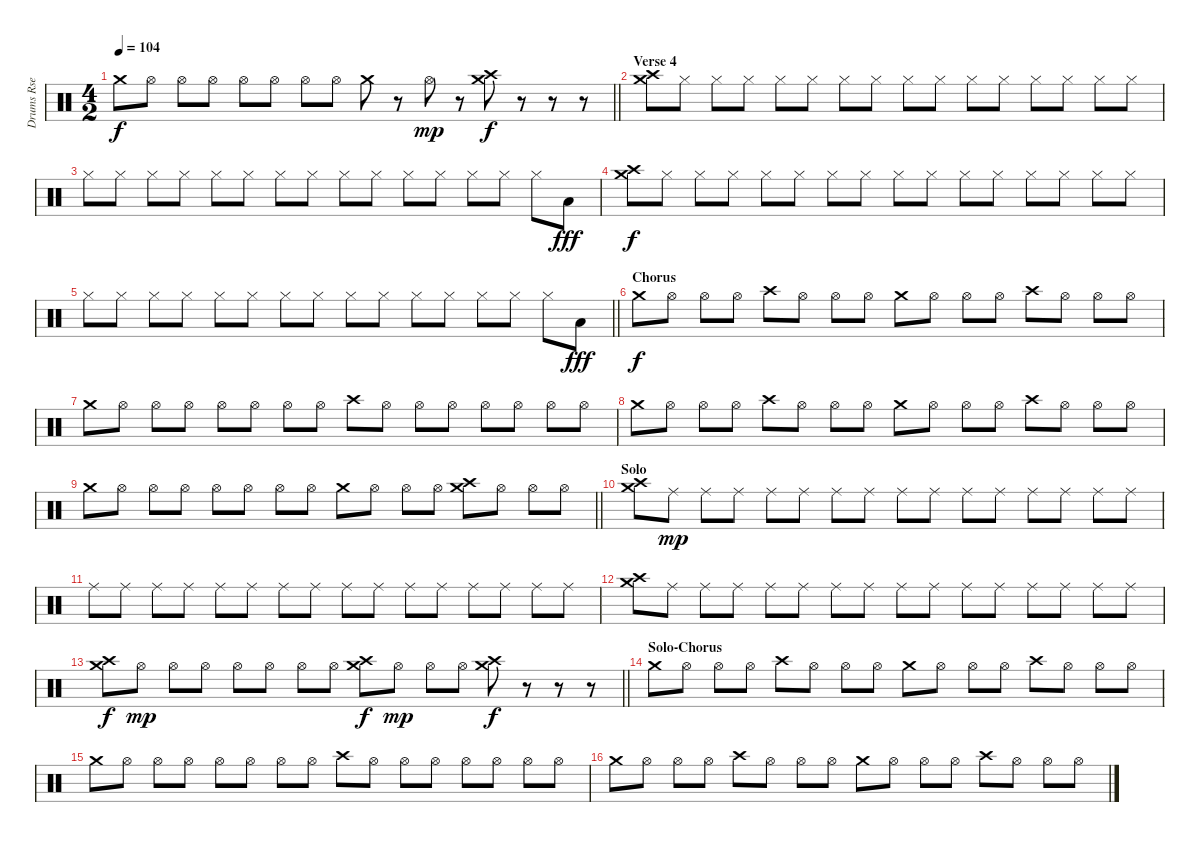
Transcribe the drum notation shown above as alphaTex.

\track ("Drums Rse" "Drums Rse") {instrument percussion}
\staff {score}
\articulation defaults
\ts (4 2)
\tempo 104
\clef neutral
\barLineRight lightlight
\ks c "Crash medium (hit)".8{dy f} "Hi-Hat (open)".8 "Hi-Hat (open)".8 "Hi-Hat (open)".8 "Hi-Hat (open)".8 "Hi-Hat (open)".8 "Hi-Hat (open)".8 "Hi-Hat (open)".8 "Crash medium (hit)".8
r.8 "Hi-Hat (open)".8{dy mp} r.8 ("Crash medium (hit)" "Crash high (hit)").8{dy f} r.8 r.8 r.8 |
\section ("" "Verse 4")
("Crash medium (hit)" "Crash high (hit)").8 "Hi-Hat (closed)".8 "Hi-Hat (closed)".8 "Hi-Hat (closed)".8 "Hi-Hat (closed)".8 "Hi-Hat (closed)".8 "Hi-Hat (closed)".8 "Hi-Hat (closed)".8 "Hi-Hat (closed)".8 "Hi-Hat (closed)".8 "Hi-Hat (closed)".8 "Hi-Hat (closed)".8 "Hi-Hat (closed)".8 "Hi-Hat (closed)".8 "Hi-Hat (closed)".8 "Hi-Hat (closed)".8 |
"Hi-Hat (closed)".8 "Hi-Hat (closed)".8 "Hi-Hat (closed)".8 "Hi-Hat (closed)".8 "Hi-Hat (closed)".8 "Hi-Hat (closed)".8 "Hi-Hat (closed)".8 "Hi-Hat (closed)".8 "Hi-Hat (closed)".8 "Hi-Hat (closed)".8 "Hi-Hat (closed)".8 "Hi-Hat (closed)".8 "Hi-Hat (closed)".8 "Hi-Hat (closed)".8 "Hi-Hat (closed)".8 "Low Tom (hit)".8{dy fff} |
("Crash medium (hit)" "Crash high (hit)").8{dy f} "Hi-Hat (closed)".8 "Hi-Hat (closed)".8 "Hi-Hat (closed)".8 "Hi-Hat (closed)".8 "Hi-Hat (closed)".8 "Hi-Hat (closed)".8 "Hi-Hat (closed)".8 "Hi-Hat (closed)".8 "Hi-Hat (closed)".8 "Hi-Hat (closed)".8 "Hi-Hat (closed)".8 "Hi-Hat (closed)".8 "Hi-Hat (closed)".8 "Hi-Hat (closed)".8 "Hi-Hat (closed)".8 |
\barLineRight lightlight "Hi-Hat (closed)".8 "Hi-Hat (closed)".8 "Hi-Hat (closed)".8 "Hi-Hat (closed)".8 "Hi-Hat (closed)".8 "Hi-Hat (closed)".8 "Hi-Hat (closed)".8 "Hi-Hat (closed)".8 "Hi-Hat (closed)".8 "Hi-Hat (closed)".8 "Hi-Hat (closed)".8 "Hi-Hat (closed)".8 "Hi-Hat (closed)".8 "Hi-Hat (closed)".8 "Hi-Hat (closed)".8 "Low Tom (hit)".8{dy fff}
|
\section ("" "Chorus")
"Crash medium (hit)".8{dy f} "Hi-Hat (open)".8 "Hi-Hat (open)".8 "Hi-Hat (open)".8 "Crash high (hit)".8 "Hi-Hat (open)".8 "Hi-Hat (open)".8 "Hi-Hat (open)".8 "Crash medium (hit)".8 "Hi-Hat (open)".8 "Hi-Hat (open)".8 "Hi-Hat (open)".8 "Crash high (hit)".8 "Hi-Hat (open)".8 "Hi-Hat (open)".8 "Hi-Hat (open)".8 |
"Crash medium (hit)".8 "Hi-Hat (open)".8 "Hi-Hat (open)".8 "Hi-Hat (open)".8 "Hi-Hat (open)".8 "Hi-Hat (open)".8 "Hi-Hat (open)".8 "Hi-Hat (open)".8 "Crash high (hit)".8 "Hi-Hat (open)".8 "Hi-Hat (open)".8 "Hi-Hat (open)".8 "Hi-Hat (open)".8 "Hi-Hat (open)".8 "Hi-Hat (open)".8 "Hi-Hat (open)".8 |
"Crash medium (hit)".8 "Hi-Hat (open)".8 "Hi-Hat (open)".8 "Hi-Hat (open)".8 "Crash high (hit)".8 "Hi-Hat (open)".8 "Hi-Hat (open)".8 "Hi-Hat (open)".8 "Crash medium (hit)".8 "Hi-Hat (open)".8 "Hi-Hat (open)".8 "Hi-Hat (open)".8 "Crash high (hit)".8 "Hi-Hat (open)".8 "Hi-Hat (open)".8 "Hi-Hat (open)".8 |
\barLineRight lightlight "Crash medium (hit)".8 "Hi-Hat (open)".8 "Hi-Hat (open)".8 "Hi-Hat (open)".8 "Hi-Hat (open)".8 "Hi-Hat (open)".8 "Hi-Hat (open)".8 "Hi-Hat (open)".8 "Crash medium (hit)".8 "Hi-Hat (open)".8 "Hi-Hat (open)".8 "Hi-Hat (open)".8
("Crash medium (hit)" "Crash high (hit)").8 "Hi-Hat (open)".8 "Hi-Hat (open)".8 "Hi-Hat (open)".8 |
\section ("" "Solo")
("Crash medium (hit)" "Crash high (hit)").8 "Ride (middle)".8{dy mp} "Ride (middle)".8 "Ride (middle)".8 "Ride (middle)".8 "Ride (middle)".8 "Ride (middle)".8 "Ride (middle)".8 "Ride (middle)".8 "Ride (middle)".8 "Ride (middle)".8 "Ride (middle)".8 "Ride (middle)".8 "Ride (middle)".8 "Ride (middle)".8 "Ride (middle)".8 |
"Ride (middle)".8 "Ride (middle)".8 "Ride (middle)".8 "Ride (middle)".8 "Ride (middle)".8 "Ride (middle)".8 "Ride (middle)".8 "Ride (middle)".8 "Ride (middle)".8 "Ride (middle)".8 "Ride (middle)".8 "Ride (middle)".8 "Ride (middle)".8 "Ride (middle)".8 "Ride (middle)".8 "Ride (middle)".8 |
("Crash medium (hit)" "Crash high (hit)").8 "Ride (middle)".8 "Ride (middle)".8 "Ride (middle)".8 "Ride (middle)".8 "Ride (middle)".8 "Ride (middle)".8 "Ride (middle)".8 "Ride (middle)".8 "Ride (middle)".8 "Ride (middle)".8 "Ride (middle)".8 "Ride (middle)".8 "Ride (middle)".8 "Ride (middle)".8 "Ride (middle)".8 |
\barLineRight lightlight
("Crash medium (hit)" "Crash high (hit)").8{dy f} "Hi-Hat (open)".8{dy mp} "Hi-Hat (open)".8 "Hi-Hat (open)".8 "Hi-Hat (open)".8 "Hi-Hat (open)".8 "Hi-Hat (open)".8 "Hi-Hat (open)".8 ("Crash medium (hit)" "Crash high (hit)").8{dy f} "Hi-Hat (open)".8{dy mp} "Hi-Hat (open)".8 "Hi-Hat (open)".8 ("Crash medium (hit)" "Crash high (hit)").8{dy f} r.8 r.8 r.8 |
\section ("" "Solo-Chorus")
"Crash medium (hit)".8 "Hi-Hat (open)".8 "Hi-Hat (open)".8 "Hi-Hat (open)".8 "Crash high (hit)".8 "Hi-Hat (open)".8 "Hi-Hat (open)".8 "Hi-Hat (open)".8 "Crash medium (hit)".8 "Hi-Hat (open)".8 "Hi-Hat (open)".8 "Hi-Hat (open)".8 "Crash high (hit)".8 "Hi-Hat (open)".8 "Hi-Hat (open)".8 "Hi-Hat (open)".8 |
"Crash medium (hit)".8 "Hi-Hat (open)".8 "Hi-Hat (open)".8 "Hi-Hat (open)".8 "Hi-Hat (open)".8 "Hi-Hat (open)".8 "Hi-Hat (open)".8 "Hi-Hat (open)".8 "Crash high (hit)".8 "Hi-Hat (open)".8 "Hi-Hat (open)".8 "Hi-Hat (open)".8 "Hi-Hat (open)".8 "Hi-Hat (open)".8 "Hi-Hat (open)".8 "Hi-Hat (open)".8 |
"Crash medium (hit)".8 "Hi-Hat (open)".8 "Hi-Hat (open)".8 "Hi-Hat (open)".8 "Crash high (hit)".8 "Hi-Hat (open)".8 "Hi-Hat (open)".8 "Hi-Hat (open)".8 "Crash medium (hit)".8 "Hi-Hat (open)".8 "Hi-Hat (open)".8 "Hi-Hat (open)".8 "Crash high (hit)".8 "Hi-Hat (open)".8 "Hi-Hat (open)".8 "Hi-Hat (open)".8
